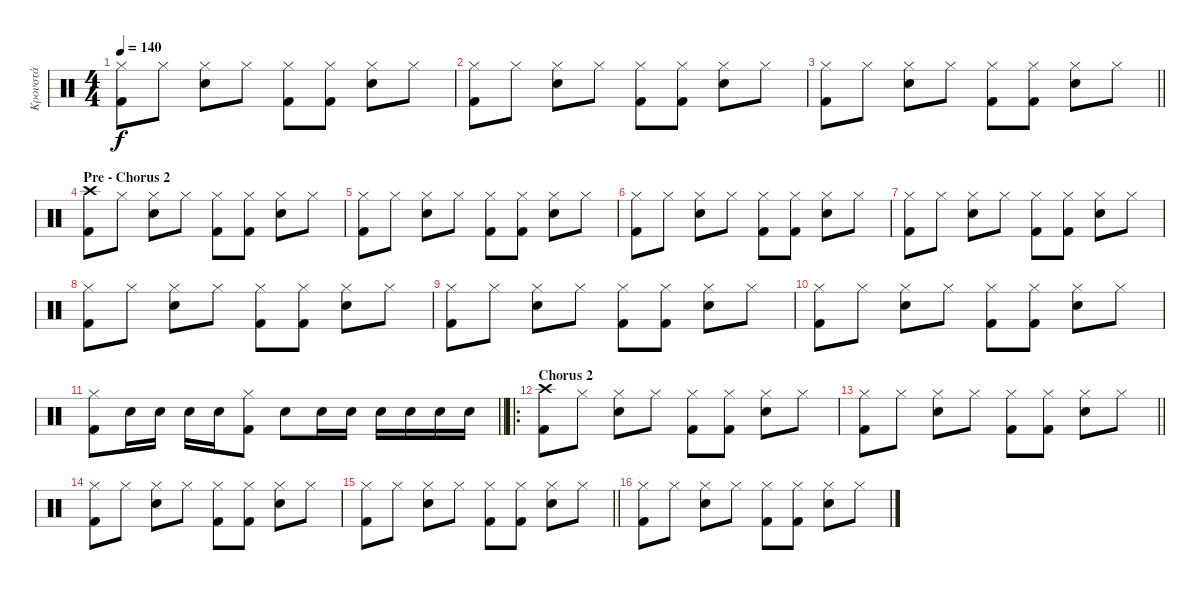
\track ("Κρουστά" "Κρουστά") {instrument percussion}
\staff {score}
\articulation defaults
\ts (4 4)
\tempo 140
\clef neutral
\ks c
("Hi-Hat (closed)" "Kick (hit) 2").8{dy f} "Hi-Hat (closed)".8 ("Hi-Hat (closed)" "Electric Snare (hit)").8 "Hi-Hat (closed)".8 ("Hi-Hat (closed)" "Kick (hit) 2").8 ("Hi-Hat (closed)" "Kick (hit) 2").8 ("Hi-Hat (closed)" "Electric Snare (hit)").8 "Hi-Hat (closed)".8 |
("Hi-Hat (closed)" "Kick (hit) 2").8 "Hi-Hat (closed)".8 ("Hi-Hat (closed)" "Electric Snare (hit)").8 "Hi-Hat (closed)".8 ("Hi-Hat (closed)" "Kick (hit) 2").8 ("Hi-Hat (closed)" "Kick (hit) 2").8 ("Hi-Hat (closed)" "Electric Snare (hit)").8 "Hi-Hat (closed)".8 |
\barLineRight lightlight
("Hi-Hat (closed)" "Kick (hit) 2").8 "Hi-Hat (closed)".8 ("Hi-Hat (closed)" "Electric Snare (hit)").8 "Hi-Hat (closed)".8 ("Hi-Hat (closed)" "Kick (hit) 2").8 ("Hi-Hat (closed)" "Kick (hit) 2").8 ("Hi-Hat (closed)" "Electric Snare (hit)").8 "Hi-Hat (closed)".8 |
\section ("" "Pre - Chorus 2")
("Crash high (hit)" "Kick (hit) 2").8 "Hi-Hat (closed)".8 ("Hi-Hat (closed)" "Electric Snare (hit)").8 "Hi-Hat (closed)".8 ("Hi-Hat (closed)" "Kick (hit) 2").8 ("Hi-Hat (closed)" "Kick (hit) 2").8 ("Hi-Hat (closed)" "Electric Snare (hit)").8 "Hi-Hat (closed)".8 |
("Hi-Hat (closed)" "Kick (hit) 2").8 "Hi-Hat (closed)".8 ("Hi-Hat (closed)" "Electric Snare (hit)").8 "Hi-Hat (closed)".8 ("Hi-Hat (closed)" "Kick (hit) 2").8 ("Hi-Hat (closed)" "Kick (hit) 2").8 ("Hi-Hat (closed)" "Electric Snare (hit)").8 "Hi-Hat (closed)".8 |
("Hi-Hat (closed)" "Kick (hit) 2").8 "Hi-Hat (closed)".8 ("Hi-Hat (closed)" "Electric Snare (hit)").8 "Hi-Hat (closed)".8 ("Hi-Hat (closed)" "Kick (hit) 2").8 ("Hi-Hat (closed)" "Kick (hit) 2").8 ("Hi-Hat (closed)" "Electric Snare (hit)").8 "Hi-Hat (closed)".8 |
("Hi-Hat (closed)" "Kick (hit) 2").8 "Hi-Hat (closed)".8 ("Hi-Hat (closed)" "Electric Snare (hit)").8 "Hi-Hat (closed)".8 ("Hi-Hat (closed)" "Kick (hit) 2").8 ("Hi-Hat (closed)" "Kick (hit) 2").8 ("Hi-Hat (closed)" "Electric Snare (hit)").8 "Hi-Hat (closed)".8 |
("Hi-Hat (closed)" "Kick (hit) 2").8 "Hi-Hat (closed)".8 ("Hi-Hat (closed)" "Electric Snare (hit)").8 "Hi-Hat (closed)".8 ("Hi-Hat (closed)" "Kick (hit) 2").8 ("Hi-Hat (closed)" "Kick (hit) 2").8 ("Hi-Hat (closed)" "Electric Snare (hit)").8 "Hi-Hat (closed)".8 |
("Hi-Hat (closed)" "Kick (hit) 2").8 "Hi-Hat (closed)".8 ("Hi-Hat (closed)" "Electric Snare (hit)").8 "Hi-Hat (closed)".8 ("Hi-Hat (closed)" "Kick (hit) 2").8 ("Hi-Hat (closed)" "Kick (hit) 2").8 ("Hi-Hat (closed)" "Electric Snare (hit)").8 "Hi-Hat (closed)".8 |
("Hi-Hat (closed)" "Kick (hit) 2").8 "Hi-Hat (closed)".8 ("Hi-Hat (closed)" "Electric Snare (hit)").8 "Hi-Hat (closed)".8 ("Hi-Hat (closed)" "Kick (hit) 2").8 ("Hi-Hat (closed)" "Kick (hit) 2").8 ("Hi-Hat (closed)" "Electric Snare (hit)").8 "Hi-Hat (closed)".8 |
\barLineRight lightlight
("Hi-Hat (closed)" "Kick (hit) 2").8 "Electric Snare (hit)".16 "Electric Snare (hit)".16 "Electric Snare (hit)".16 "Electric Snare (hit)".16 ("Hi-Hat (closed)" "Kick (hit) 2").8 "Electric Snare (hit)".8 "Electric Snare (hit)".16 "Electric Snare (hit)".16 "Electric Snare (hit)".16 "Electric Snare (hit)".16 "Electric Snare (hit)".16 "Electric Snare (hit)".16 |
\ro
\section ("" "Chorus 2")
("Crash high (hit)" "Kick (hit) 2").8 "Hi-Hat (closed)".8 ("Hi-Hat (closed)" "Electric Snare (hit)").8 "Hi-Hat (closed)".8 ("Hi-Hat (closed)" "Kick (hit) 2").8 ("Hi-Hat (closed)" "Kick (hit) 2").8 ("Hi-Hat (closed)" "Electric Snare (hit)").8 "Hi-Hat (closed)".8 |
\barLineRight lightlight
("Hi-Hat (closed)" "Kick (hit) 2").8 "Hi-Hat (closed)".8 ("Hi-Hat (closed)" "Electric Snare (hit)").8 "Hi-Hat (closed)".8 ("Hi-Hat (closed)" "Kick (hit) 2").8 ("Hi-Hat (closed)" "Kick (hit) 2").8 ("Hi-Hat (closed)" "Electric Snare (hit)").8 "Hi-Hat (closed)".8 |
("Hi-Hat (closed)" "Kick (hit) 2").8 "Hi-Hat (closed)".8 ("Hi-Hat (closed)" "Electric Snare (hit)").8 "Hi-Hat (closed)".8 ("Hi-Hat (closed)" "Kick (hit) 2").8 ("Hi-Hat (closed)" "Kick (hit) 2").8 ("Hi-Hat (closed)" "Electric Snare (hit)").8 "Hi-Hat (closed)".8 |
\barLineRight lightlight
("Hi-Hat (closed)" "Kick (hit) 2").8 "Hi-Hat (closed)".8 ("Hi-Hat (closed)" "Electric Snare (hit)").8 "Hi-Hat (closed)".8 ("Hi-Hat (closed)" "Kick (hit) 2").8 ("Hi-Hat (closed)" "Kick (hit) 2").8 ("Hi-Hat (closed)" "Electric Snare (hit)").8 "Hi-Hat (closed)".8 |
("Hi-Hat (closed)" "Kick (hit) 2").8 "Hi-Hat (closed)".8 ("Hi-Hat (closed)" "Electric Snare (hit)").8 "Hi-Hat (closed)".8 ("Hi-Hat (closed)" "Kick (hit) 2").8 ("Hi-Hat (closed)" "Kick (hit) 2").8 ("Hi-Hat (closed)" "Electric Snare (hit)").8 "Hi-Hat (closed)".8
